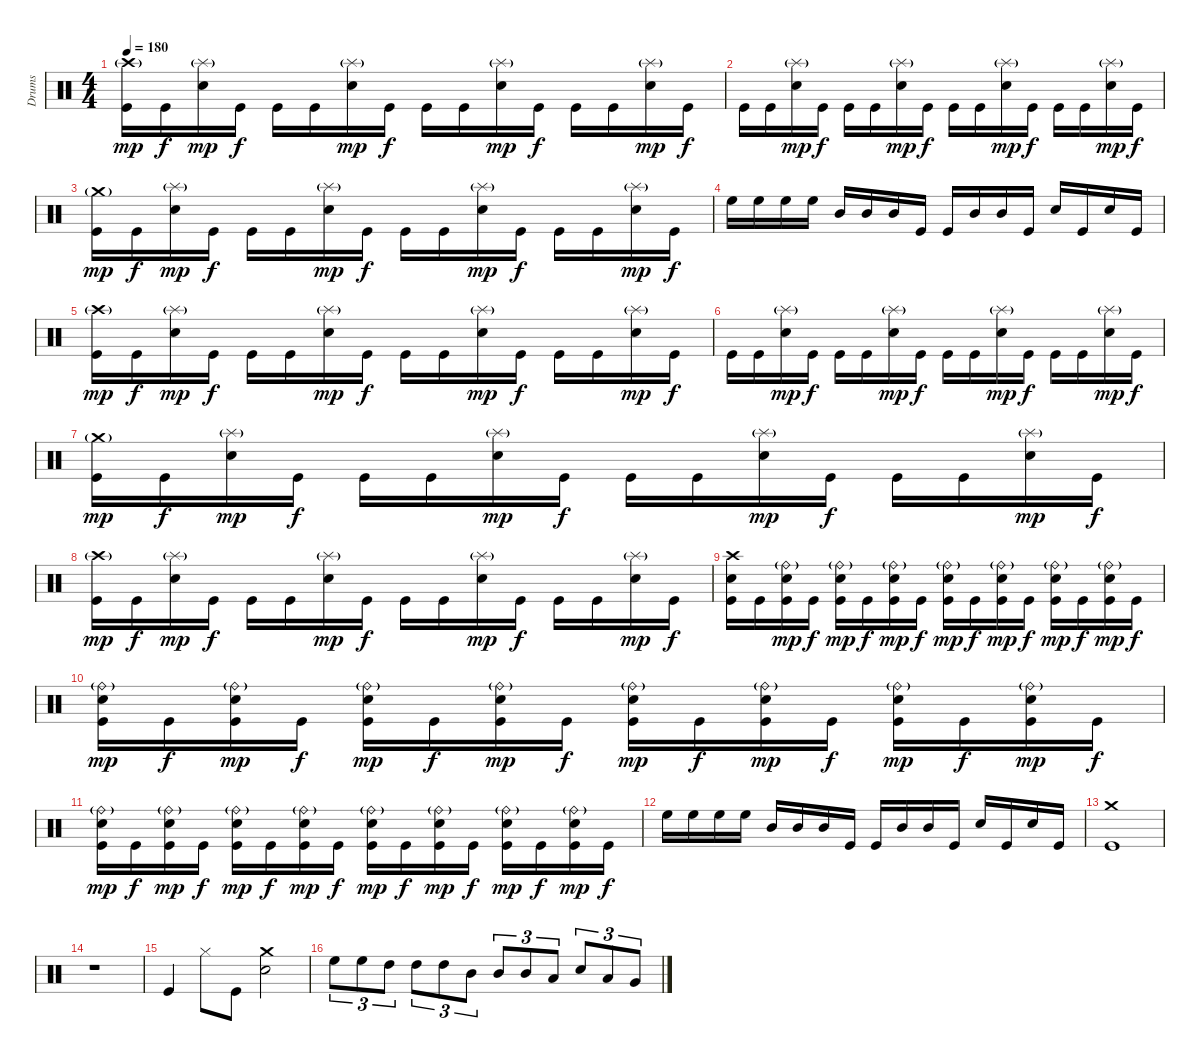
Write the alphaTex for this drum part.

\track ("Drums" "Drums") {instrument percussion}
\staff {score}
\articulation defaults
\ts (4 4)
\tempo 180
\clef neutral
\ks c
("Crash high (hit)"{g} "Kick (hit)").16{dy mp} "Kick (hit)".16{dy f} ("Splash (hit)"{g} "Snare (hit) 2").16{dy mp} "Kick (hit)".16{dy f} "Kick (hit)".16 "Kick (hit)".16 ("Splash (hit)"{g} "Snare (hit) 2").16{dy mp} "Kick (hit)".16{dy f} "Kick (hit)".16 "Kick (hit)".16 ("Splash (hit)"{g} "Snare (hit) 2").16{dy mp} "Kick (hit)".16{dy f} "Kick (hit)".16 "Kick (hit)".16 ("Splash (hit)"{g} "Snare (hit) 2").16{dy mp} "Kick (hit)".16{dy f} |
"Kick (hit)".16 "Kick (hit)".16 ("Splash (hit)"{g} "Snare (hit) 2").16{dy mp} "Kick (hit)".16{dy f} "Kick (hit)".16 "Kick (hit)".16 ("Splash (hit)"{g} "Snare (hit) 2").16{dy mp} "Kick (hit)".16{dy f} "Kick (hit)".16 "Kick (hit)".16 ("Splash (hit)"{g} "Snare (hit) 2").16{dy mp} "Kick (hit)".16{dy f} "Kick (hit)".16 "Kick (hit)".16 ("Splash (hit)"{g} "Snare (hit) 2").16{dy mp} "Kick (hit)".16{dy f} |
("Crash medium (hit)"{g} "Kick (hit)").16{dy mp} "Kick (hit)".16{dy f} ("Splash (hit)"{g} "Snare (hit) 2").16{dy mp} "Kick (hit)".16{dy f} "Kick (hit)".16 "Kick (hit)".16 ("Splash (hit)"{g} "Snare (hit) 2").16{dy mp} "Kick (hit)".16{dy f} "Kick (hit)".16 "Kick (hit)".16 ("Splash (hit)"{g} "Snare (hit) 2").16{dy mp} "Kick (hit)".16{dy f} "Kick (hit)".16 "Kick (hit)".16 ("Splash (hit)"{g} "Snare (hit) 2").16{dy mp} "Kick (hit)".16{dy f} |
"High Floor Tom (hit)".16 "High Floor Tom (hit)".16 "High Floor Tom (hit)".16 "High Floor Tom (hit)".16 "Mid Tom (hit)".16 "Mid Tom (hit)".16 "Mid Tom (hit)".16 "Kick (hit)".16 "Kick (hit)".16 "Mid Tom (hit)".16 "Mid Tom (hit)".16 "Kick (hit)".16 "Snare (hit) 2".16 "Kick (hit)".16 "Snare (hit) 2".16 "Kick (hit)".16 |
("Crash high (hit)"{g} "Kick (hit)").16{dy mp} "Kick (hit)".16{dy f} ("Splash (hit)"{g} "Snare (hit) 2").16{dy mp} "Kick (hit)".16{dy f} "Kick (hit)".16 "Kick (hit)".16 ("Splash (hit)"{g} "Snare (hit) 2").16{dy mp} "Kick (hit)".16{dy f} "Kick (hit)".16 "Kick (hit)".16 ("Splash (hit)"{g} "Snare (hit) 2").16{dy mp} "Kick (hit)".16{dy f} "Kick (hit)".16 "Kick (hit)".16 ("Splash (hit)"{g} "Snare (hit) 2").16{dy mp} "Kick (hit)".16{dy f} |
"Kick (hit)".16 "Kick (hit)".16 ("Splash (hit)"{g} "Snare (hit) 2").16{dy mp} "Kick (hit)".16{dy f} "Kick (hit)".16 "Kick (hit)".16 ("Splash (hit)"{g} "Snare (hit) 2").16{dy mp} "Kick (hit)".16{dy f} "Kick (hit)".16 "Kick (hit)".16 ("Splash (hit)"{g} "Snare (hit) 2").16{dy mp} "Kick (hit)".16{dy f} "Kick (hit)".16 "Kick (hit)".16 ("Splash (hit)"{g} "Snare (hit) 2").16{dy mp} "Kick (hit)".16{dy f} |
("Crash medium (hit)"{g} "Kick (hit)").16{dy mp} "Kick (hit)".16{dy f} ("Splash (hit)"{g} "Snare (hit) 2").16{dy mp} "Kick (hit)".16{dy f} "Kick (hit)".16 "Kick (hit)".16 ("Splash (hit)"{g} "Snare (hit) 2").16{dy mp} "Kick (hit)".16{dy f} "Kick (hit)".16 "Kick (hit)".16 ("Splash (hit)"{g} "Snare (hit) 2").16{dy mp} "Kick (hit)".16{dy f} "Kick (hit)".16 "Kick (hit)".16 ("Splash (hit)"{g} "Snare (hit) 2").16{dy mp} "Kick (hit)".16{dy f} |
("Crash high (hit)"{g} "Kick (hit)").16{dy mp} "Kick (hit)".16{dy f} ("Splash (hit)"{g} "Snare (hit) 2").16{dy mp} "Kick (hit)".16{dy f} "Kick (hit)".16 "Kick (hit)".16 ("Splash (hit)"{g} "Snare (hit) 2").16{dy mp} "Kick (hit)".16{dy f} "Kick (hit)".16 "Kick (hit)".16 ("Splash (hit)"{g} "Snare (hit) 2").16{dy mp} "Kick (hit)".16{dy f} "Kick (hit)".16 "Kick (hit)".16 ("Splash (hit)"{g} "Snare (hit) 2").16{dy mp} "Kick (hit)".16{dy f} |
("Crash high (hit)" "Electric Snare (hit)" "Kick (hit)").16 "Kick (hit)".16 ("Ride (bell)"{g} "Electric Snare (hit)" "Kick (hit)").16{dy mp} "Kick (hit)".16{dy f} ("Ride (bell)"{g} "Electric Snare (hit)" "Kick (hit)").16{dy mp} "Kick (hit)".16{dy f} ("Ride (bell)"{g} "Electric Snare (hit)" "Kick (hit)").16{dy mp} "Kick (hit)".16{dy f} ("Ride (bell)"{g} "Electric Snare (hit)" "Kick (hit)").16{dy mp} "Kick (hit)".16{dy f} ("Ride (bell)"{g} "Electric Snare (hit)" "Kick (hit)").16{dy mp} "Kick (hit)".16{dy f} ("Ride (bell)"{g} "Electric Snare (hit)" "Kick (hit)").16{dy mp} "Kick (hit)".16{dy f} ("Ride (bell)"{g} "Electric Snare (hit)" "Kick (hit)").16{dy mp} "Kick (hit)".16{dy f} |
("Ride (bell)"{g} "Electric Snare (hit)" "Kick (hit)").16{dy mp} "Kick (hit)".16{dy f} ("Ride (bell)"{g} "Electric Snare (hit)" "Kick (hit)").16{dy mp} "Kick (hit)".16{dy f} ("Ride (bell)"{g} "Electric Snare (hit)" "Kick (hit)").16{dy mp} "Kick (hit)".16{dy f} ("Ride (bell)"{g} "Electric Snare (hit)" "Kick (hit)").16{dy mp} "Kick (hit)".16{dy f} ("Ride (bell)"{g} "Electric Snare (hit)" "Kick (hit)").16{dy mp} "Kick (hit)".16{dy f} ("Ride (bell)"{g} "Electric Snare (hit)" "Kick (hit)").16{dy mp} "Kick (hit)".16{dy f} ("Ride (bell)"{g} "Electric Snare (hit)" "Kick (hit)").16{dy mp} "Kick (hit)".16{dy f} ("Ride (bell)"{g} "Electric Snare (hit)" "Kick (hit)").16{dy mp} "Kick (hit)".16{dy f} |
("Ride (bell)"{g} "Electric Snare (hit)" "Kick (hit)").16{dy mp} "Kick (hit)".16{dy f} ("Ride (bell)"{g} "Electric Snare (hit)" "Kick (hit)").16{dy mp} "Kick (hit)".16{dy f} ("Ride (bell)"{g} "Electric Snare (hit)" "Kick (hit)").16{dy mp} "Kick (hit)".16{dy f} ("Ride (bell)"{g} "Electric Snare (hit)" "Kick (hit)").16{dy mp} "Kick (hit)".16{dy f} ("Ride (bell)"{g} "Electric Snare (hit)" "Kick (hit)").16{dy mp} "Kick (hit)".16{dy f} ("Ride (bell)"{g} "Electric Snare (hit)" "Kick (hit)").16{dy mp} "Kick (hit)".16{dy f} ("Ride (bell)"{g} "Electric Snare (hit)" "Kick (hit)").16{dy mp} "Kick (hit)".16{dy f} ("Ride (bell)"{g} "Electric Snare (hit)" "Kick (hit)").16{dy mp} "Kick (hit)".16{dy f} |
"High Floor Tom (hit)".16 "High Floor Tom (hit)".16 "High Floor Tom (hit)".16 "High Floor Tom (hit)".16 "Mid Tom (hit)".16 "Mid Tom (hit)".16 "Mid Tom (hit)".16 "Kick (hit)".16 "Kick (hit)".16 "Mid Tom (hit)".16 "Mid Tom (hit)".16 "Kick (hit)".16 "Snare (hit) 2".16 "Kick (hit)".16 "Snare (hit) 2".16 "Kick (hit)".16 |
("Crash medium (hit)" "Kick (hit)").1 |
r.1 |
"Kick (hit)".4 "Hi-Hat (closed)".8 "Kick (hit)".8 ("Crash medium (hit)" "Snare (hit) 2").2 |
"High Floor Tom (hit)".8{tu (3 2)} "High Floor Tom (hit)".8{tu (3 2)} "High Tom (hit)".8{tu (3 2)} "High Tom (hit)".8{tu (3 2)} "High Tom (hit)".8{tu (3 2)} "Mid Tom (hit)".8{tu (3 2)} "Mid Tom (hit)".8{tu (3 2)} "Mid Tom (hit)".8{tu (3 2)} "Low Tom (hit)".8{tu (3 2)} "Snare (hit) 2".8{tu (3 2)} "Low Tom (hit)".8{tu (3 2)} "Very Low Tom (hit)".8{tu (3 2)}
